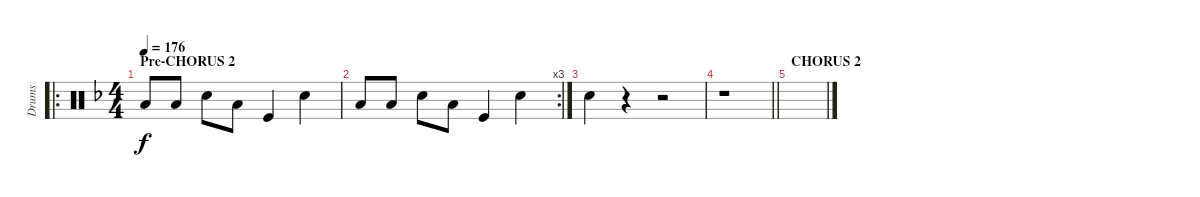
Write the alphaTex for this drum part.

\track ("Drums" "Drums") {instrument percussion}
\staff {score}
\articulation defaults
\ro
\ts (4 4)
\section ("" "Pre-CHORUS 2")
\tempo 176
\clef neutral
\ks f "Low Tom (hit)".8{dy f} "Low Floor Tom (hit)".8 "Snare (hit) 2".8 "Low Floor Tom (hit)".8 "Kick (hit)".4 "Snare (hit) 2".4
|
\rc 3 "Low Tom (hit)".8 "Low Floor Tom (hit)".8 "Snare (hit) 2".8 "Low Floor Tom (hit)".8 "Kick (hit)".4 "Snare (hit) 2".4
|
"Snare (hit) 2".4 r.4 r.2 |
\barLineRight lightlight
r.1 |
\section ("" "CHORUS 2")
